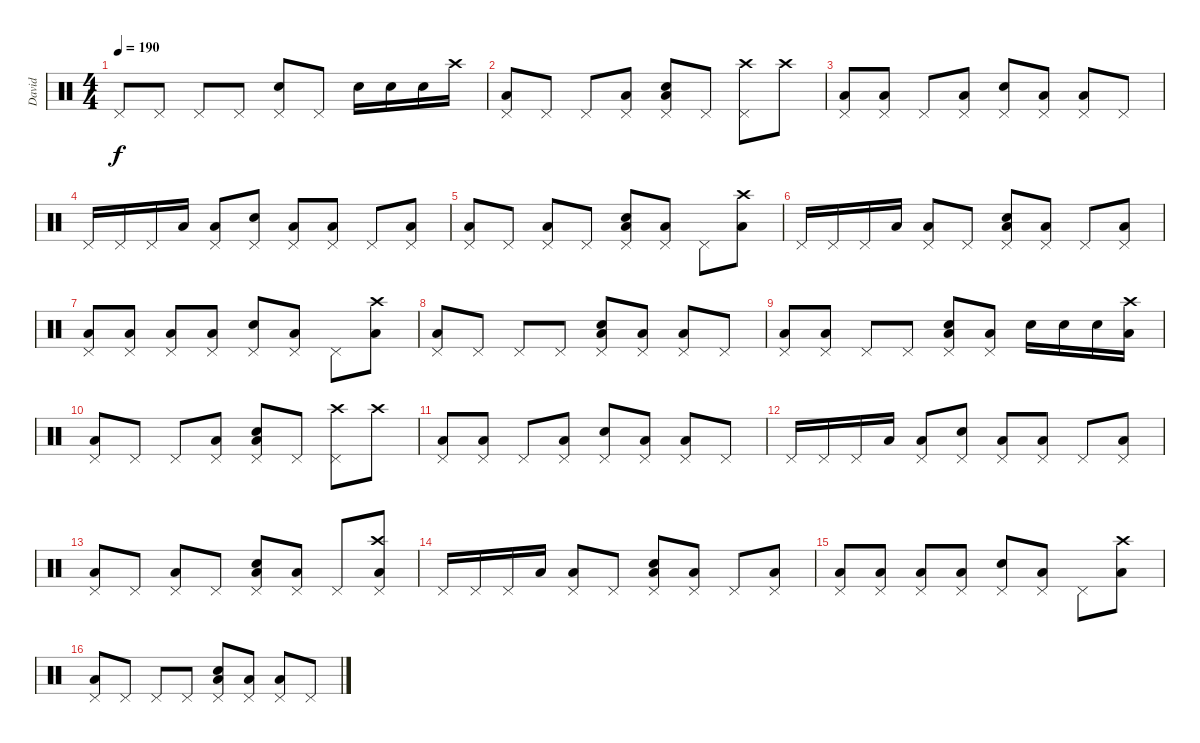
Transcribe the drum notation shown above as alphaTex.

\track ("David" "David") {instrument percussion}
\staff {score}
\articulation defaults
\ts (4 4)
\tempo 190
\clef neutral
\ks c "Pedal Hi-Hat (hit)".8{dy f} "Pedal Hi-Hat (hit)".8 "Pedal Hi-Hat (hit)".8 "Pedal Hi-Hat (hit)".8
("Pedal Hi-Hat (hit)" "Electric Snare (hit)").8 "Pedal Hi-Hat (hit)".8 "Electric Snare (hit)".16 "Electric Snare (hit)".16 "Electric Snare (hit)".16 "Crash high (hit)".16 |
("Pedal Hi-Hat (hit)" "Low Tom (hit)").8 "Pedal Hi-Hat (hit)".8 "Pedal Hi-Hat (hit)".8 ("Pedal Hi-Hat (hit)" "Low Tom (hit)").8 ("Pedal Hi-Hat (hit)" "Electric Snare (hit)" "Low Tom (hit)").8 "Pedal Hi-Hat (hit)".8 ("Crash high (hit)" "Pedal Hi-Hat (hit)").8 "Crash high (hit)".8 |
("Pedal Hi-Hat (hit)" "Low Tom (hit)").8 ("Pedal Hi-Hat (hit)" "Low Tom (hit)").8 "Pedal Hi-Hat (hit)".8 ("Pedal Hi-Hat (hit)" "Low Tom (hit)").8 ("Pedal Hi-Hat (hit)" "Electric Snare (hit)").8 ("Pedal Hi-Hat (hit)" "Low Tom (hit)").8 ("Pedal Hi-Hat (hit)" "Low Tom (hit)").8 "Pedal Hi-Hat (hit)".8 |
"Pedal Hi-Hat (hit)".16 "Pedal Hi-Hat (hit)".16 "Pedal Hi-Hat (hit)".16 "Low Tom (hit)".16 ("Pedal Hi-Hat (hit)" "Low Tom (hit)").8 ("Pedal Hi-Hat (hit)" "Electric Snare (hit)").8 ("Pedal Hi-Hat (hit)" "Low Tom (hit)").8 ("Pedal Hi-Hat (hit)" "Low Tom (hit)").8 "Pedal Hi-Hat (hit)".8 ("Pedal Hi-Hat (hit)" "Low Tom (hit)").8 |
("Pedal Hi-Hat (hit)" "Low Tom (hit)").8 "Pedal Hi-Hat (hit)".8 ("Pedal Hi-Hat (hit)" "Low Tom (hit)").8 "Pedal Hi-Hat (hit)".8 ("Pedal Hi-Hat (hit)" "Electric Snare (hit)" "Low Tom (hit)").8 ("Pedal Hi-Hat (hit)" "Low Tom (hit)").8 "Pedal Hi-Hat (hit)".8 ("Crash high (hit)" "Low Tom (hit)").8 |
"Pedal Hi-Hat (hit)".16 "Pedal Hi-Hat (hit)".16 "Pedal Hi-Hat (hit)".16 "Low Tom (hit)".16 ("Pedal Hi-Hat (hit)" "Low Tom (hit)").8 "Pedal Hi-Hat (hit)".8 ("Pedal Hi-Hat (hit)" "Electric Snare (hit)" "Low Tom (hit)").8 ("Pedal Hi-Hat (hit)" "Low Tom (hit)").8 "Pedal Hi-Hat (hit)".8 ("Pedal Hi-Hat (hit)" "Low Tom (hit)").8 |
("Pedal Hi-Hat (hit)" "Low Tom (hit)").8 ("Pedal Hi-Hat (hit)" "Low Tom (hit)").8 ("Pedal Hi-Hat (hit)" "Low Tom (hit)").8 ("Pedal Hi-Hat (hit)" "Low Tom (hit)").8 ("Pedal Hi-Hat (hit)" "Electric Snare (hit)").8 ("Pedal Hi-Hat (hit)" "Low Tom (hit)").8 "Pedal Hi-Hat (hit)".8 ("Crash high (hit)" "Low Tom (hit)").8 |
("Pedal Hi-Hat (hit)" "Low Tom (hit)").8 "Pedal Hi-Hat (hit)".8 "Pedal Hi-Hat (hit)".8 "Pedal Hi-Hat (hit)".8 ("Pedal Hi-Hat (hit)" "Electric Snare (hit)" "Low Tom (hit)").8 ("Pedal Hi-Hat (hit)" "Low Tom (hit)").8 ("Pedal Hi-Hat (hit)" "Low Tom (hit)").8 "Pedal Hi-Hat (hit)".8 |
("Pedal Hi-Hat (hit)" "Low Tom (hit)").8 ("Pedal Hi-Hat (hit)" "Low Tom (hit)").8 "Pedal Hi-Hat (hit)".8 "Pedal Hi-Hat (hit)".8 ("Pedal Hi-Hat (hit)" "Electric Snare (hit)" "Low Tom (hit)").8 ("Pedal Hi-Hat (hit)" "Low Tom (hit)").8 "Electric Snare (hit)".16 "Electric Snare (hit)".16 "Electric Snare (hit)".16 ("Crash high (hit)" "Low Tom (hit)").16 |
("Pedal Hi-Hat (hit)" "Low Tom (hit)").8 "Pedal Hi-Hat (hit)".8 "Pedal Hi-Hat (hit)".8 ("Pedal Hi-Hat (hit)" "Low Tom (hit)").8 ("Pedal Hi-Hat (hit)" "Electric Snare (hit)" "Low Tom (hit)").8 "Pedal Hi-Hat (hit)".8 ("Crash high (hit)" "Pedal Hi-Hat (hit)").8 "Crash high (hit)".8 |
("Pedal Hi-Hat (hit)" "Low Tom (hit)").8 ("Pedal Hi-Hat (hit)" "Low Tom (hit)").8 "Pedal Hi-Hat (hit)".8 ("Pedal Hi-Hat (hit)" "Low Tom (hit)").8 ("Pedal Hi-Hat (hit)" "Electric Snare (hit)").8 ("Pedal Hi-Hat (hit)" "Low Tom (hit)").8 ("Pedal Hi-Hat (hit)" "Low Tom (hit)").8 "Pedal Hi-Hat (hit)".8 |
"Pedal Hi-Hat (hit)".16 "Pedal Hi-Hat (hit)".16 "Pedal Hi-Hat (hit)".16 "Low Tom (hit)".16 ("Pedal Hi-Hat (hit)" "Low Tom (hit)").8 ("Pedal Hi-Hat (hit)" "Electric Snare (hit)").8 ("Pedal Hi-Hat (hit)" "Low Tom (hit)").8 ("Pedal Hi-Hat (hit)" "Low Tom (hit)").8 "Pedal Hi-Hat (hit)".8 ("Pedal Hi-Hat (hit)" "Low Tom (hit)").8 |
("Pedal Hi-Hat (hit)" "Low Tom (hit)").8 "Pedal Hi-Hat (hit)".8 ("Pedal Hi-Hat (hit)" "Low Tom (hit)").8 "Pedal Hi-Hat (hit)".8 ("Pedal Hi-Hat (hit)" "Electric Snare (hit)" "Low Tom (hit)").8 ("Pedal Hi-Hat (hit)" "Low Tom (hit)").8 "Pedal Hi-Hat (hit)".8 ("Crash high (hit)" "Pedal Hi-Hat (hit)" "Low Tom (hit)").8 |
"Pedal Hi-Hat (hit)".16 "Pedal Hi-Hat (hit)".16 "Pedal Hi-Hat (hit)".16 "Low Tom (hit)".16 ("Pedal Hi-Hat (hit)" "Low Tom (hit)").8 "Pedal Hi-Hat (hit)".8 ("Pedal Hi-Hat (hit)" "Electric Snare (hit)" "Low Tom (hit)").8 ("Pedal Hi-Hat (hit)" "Low Tom (hit)").8 "Pedal Hi-Hat (hit)".8 ("Pedal Hi-Hat (hit)" "Low Tom (hit)").8 |
("Pedal Hi-Hat (hit)" "Low Tom (hit)").8 ("Pedal Hi-Hat (hit)" "Low Tom (hit)").8 ("Pedal Hi-Hat (hit)" "Low Tom (hit)").8 ("Pedal Hi-Hat (hit)" "Low Tom (hit)").8 ("Pedal Hi-Hat (hit)" "Electric Snare (hit)").8 ("Pedal Hi-Hat (hit)" "Low Tom (hit)").8 "Pedal Hi-Hat (hit)".8 ("Crash high (hit)" "Low Tom (hit)").8 |
("Pedal Hi-Hat (hit)" "Low Tom (hit)").8 "Pedal Hi-Hat (hit)".8 "Pedal Hi-Hat (hit)".8 "Pedal Hi-Hat (hit)".8 ("Pedal Hi-Hat (hit)" "Electric Snare (hit)" "Low Tom (hit)").8 ("Pedal Hi-Hat (hit)" "Low Tom (hit)").8 ("Pedal Hi-Hat (hit)" "Low Tom (hit)").8 "Pedal Hi-Hat (hit)".8
